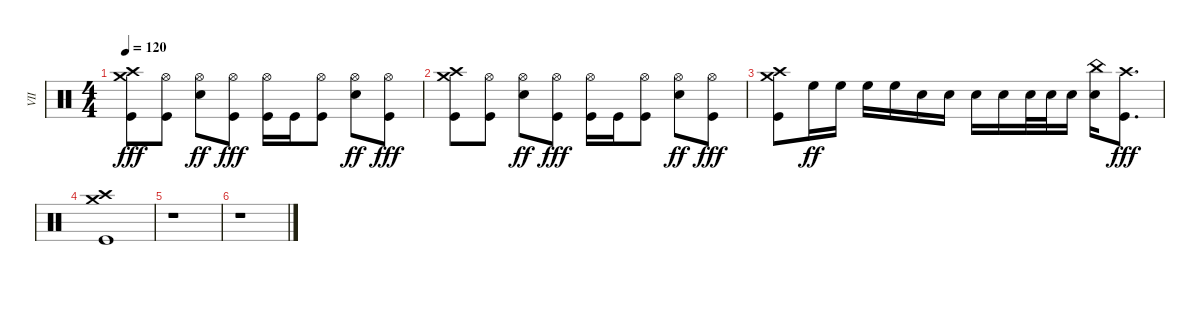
\track ("VII" "VII") {instrument percussion}
\staff {score}
\articulation defaults
\ts (4 4)
\tempo 120
\clef neutral
\ks c
("Crash high (hit)" "Crash medium (hit)" "Kick (hit)").8{dy fff} ("Hi-Hat (open)" "Kick (hit)").8 ("Hi-Hat (open)" "Snare (hit) 2").8{dy ff} ("Hi-Hat (open)" "Kick (hit)").8{dy fff} ("Hi-Hat (open)" "Kick (hit)").16 "Kick (hit)".16 ("Hi-Hat (open)" "Kick (hit)").8 ("Hi-Hat (open)" "Snare (hit) 2").8{dy ff} ("Hi-Hat (open)" "Kick (hit)").8{dy fff} |
("Crash high (hit)" "Crash medium (hit)" "Kick (hit)").8 ("Hi-Hat (open)" "Kick (hit)").8 ("Hi-Hat (open)" "Snare (hit) 2").8{dy ff} ("Hi-Hat (open)" "Kick (hit)").8{dy fff} ("Hi-Hat (open)" "Kick (hit)").16 "Kick (hit)".16 ("Hi-Hat (open)" "Kick (hit)").8 ("Hi-Hat (open)" "Snare (hit) 2").8{dy ff} ("Hi-Hat (open)" "Kick (hit)").8{dy fff} |
("Crash high (hit)" "Crash medium (hit)" "Kick (hit)").8 "High Floor Tom (hit)".16{dy ff} "High Floor Tom (hit)".16 "High Floor Tom (hit)".16 "High Floor Tom (hit)".16 "Snare (hit) 2".16 "Snare (hit) 2".16 "Snare (hit) 2".16 "Snare (hit) 2".16 "Snare (hit) 2".32 "Snare (hit) 2".32 "Snare (hit) 2".16 ("China (hit)" "Snare (hit) 2").16 ("Crash high (hit)" "Kick (hit)").8{d dy fff} |
("Crash high (hit)" "Crash medium (hit)" "Kick (hit)").1 |
r.1 |
r.1
